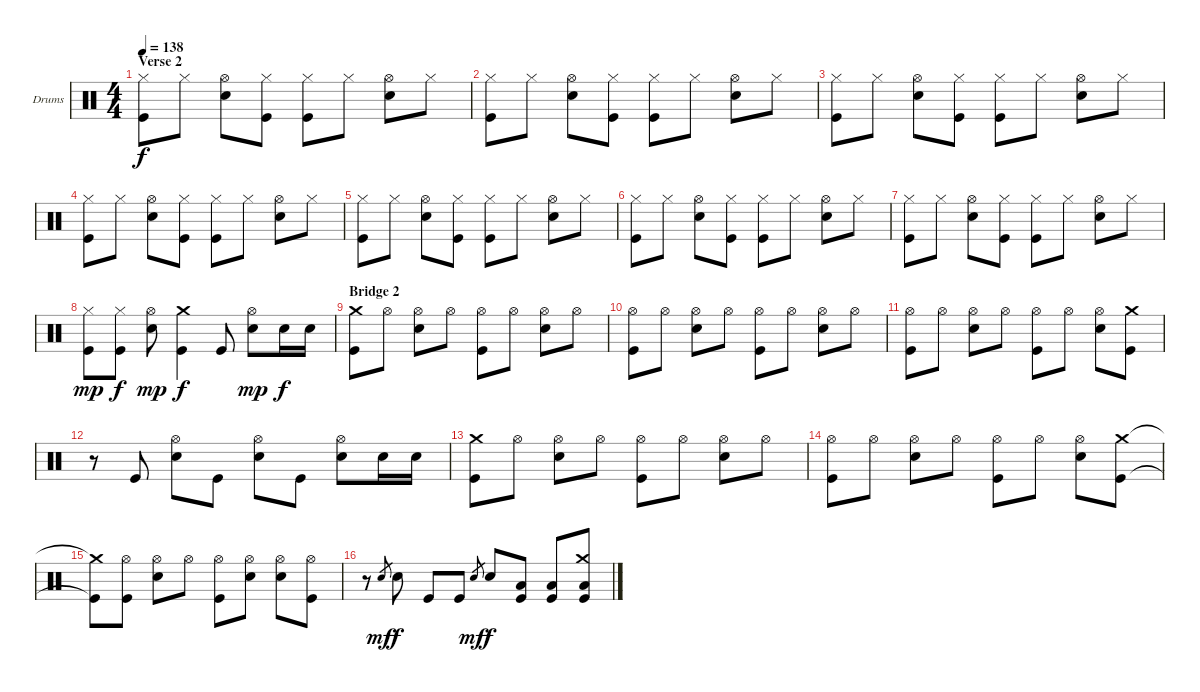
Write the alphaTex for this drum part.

\bracketExtendMode groupsimilarinstruments
\firstSystemTrackNameOrientation horizontal
\otherSystemsTrackNameOrientation horizontal
\track ("Drumkit" "Drums") {instrument percussion}
\staff {score}
\articulation defaults
\ts (4 4)
\section ("" "Verse 2")
\tempo 138
\clef neutral
\ks c
("Hi-Hat (closed)" "Kick (hit)").8{dy f} "Hi-Hat (closed)".8 ("Hi-Hat (open)" "Snare (hit) 2").8 ("Hi-Hat (closed)" "Kick (hit)").8 ("Hi-Hat (closed)" "Kick (hit)").8 "Hi-Hat (closed)".8 ("Hi-Hat (open)" "Snare (hit) 2").8 "Hi-Hat (closed)".8 |
("Hi-Hat (closed)" "Kick (hit)").8 "Hi-Hat (closed)".8 ("Hi-Hat (open)" "Snare (hit) 2").8 ("Hi-Hat (closed)" "Kick (hit)").8 ("Hi-Hat (closed)" "Kick (hit)").8 "Hi-Hat (closed)".8 ("Hi-Hat (open)" "Snare (hit) 2").8 "Hi-Hat (closed)".8 |
("Hi-Hat (closed)" "Kick (hit)").8 "Hi-Hat (closed)".8 ("Hi-Hat (open)" "Snare (hit) 2").8 ("Hi-Hat (closed)" "Kick (hit)").8 ("Hi-Hat (closed)" "Kick (hit)").8 "Hi-Hat (closed)".8 ("Hi-Hat (open)" "Snare (hit) 2").8 "Hi-Hat (closed)".8 |
("Hi-Hat (closed)" "Kick (hit)").8 "Hi-Hat (closed)".8 ("Hi-Hat (open)" "Snare (hit) 2").8 ("Hi-Hat (closed)" "Kick (hit)").8 ("Hi-Hat (closed)" "Kick (hit)").8 "Hi-Hat (closed)".8 ("Hi-Hat (open)" "Snare (hit) 2").8 "Hi-Hat (closed)".8 |
("Hi-Hat (closed)" "Kick (hit)").8 "Hi-Hat (closed)".8 ("Hi-Hat (open)" "Snare (hit) 2").8 ("Hi-Hat (closed)" "Kick (hit)").8 ("Hi-Hat (closed)" "Kick (hit)").8 "Hi-Hat (closed)".8 ("Hi-Hat (open)" "Snare (hit) 2").8 "Hi-Hat (closed)".8 |
("Hi-Hat (closed)" "Kick (hit)").8 "Hi-Hat (closed)".8 ("Hi-Hat (open)" "Snare (hit) 2").8 ("Hi-Hat (closed)" "Kick (hit)").8 ("Hi-Hat (closed)" "Kick (hit)").8 "Hi-Hat (closed)".8 ("Hi-Hat (open)" "Snare (hit) 2").8 "Hi-Hat (closed)".8 |
("Hi-Hat (closed)" "Kick (hit)").8 "Hi-Hat (closed)".8 ("Hi-Hat (open)" "Snare (hit) 2").8 ("Hi-Hat (closed)" "Kick (hit)").8 ("Hi-Hat (closed)" "Kick (hit)").8 "Hi-Hat (closed)".8 ("Hi-Hat (open)" "Snare (hit) 2").8 "Hi-Hat (closed)".8 |
("Hi-Hat (closed)" "Kick (hit)").8{dy mp} ("Hi-Hat (closed)" "Kick (hit)").8{dy f} ("Hi-Hat (open)" "Snare (hit) 2").8{dy mp} ("Crash medium (hit)" "Kick (hit)").4{dy f} "Kick (hit)".8 ("Hi-Hat (open)" "Snare (hit) 2").8{dy mp} "Snare (hit) 2".16{dy f} "Snare (hit) 2".16 |
\section ("" "Bridge 2")
("Crash medium (hit)" "Kick (hit)").8 "Hi-Hat (open)".8 ("Hi-Hat (open)" "Snare (hit) 2").8 "Hi-Hat (open)".8 ("Hi-Hat (open)" "Kick (hit)").8 "Hi-Hat (open)".8 ("Hi-Hat (open)" "Snare (hit) 2").8 "Hi-Hat (open)".8 |
("Hi-Hat (open)" "Kick (hit)").8 "Hi-Hat (open)".8 ("Hi-Hat (open)" "Snare (hit) 2").8 "Hi-Hat (open)".8 ("Hi-Hat (open)" "Kick (hit)").8 "Hi-Hat (open)".8 ("Hi-Hat (open)" "Snare (hit) 2").8 "Hi-Hat (open)".8 |
("Hi-Hat (open)" "Kick (hit)").8 "Hi-Hat (open)".8 ("Hi-Hat (open)" "Snare (hit) 2").8 "Hi-Hat (open)".8 ("Hi-Hat (open)" "Kick (hit)").8 "Hi-Hat (open)".8 ("Hi-Hat (open)" "Snare (hit) 2").8 ("Crash medium (hit)" "Kick (hit)").8 |
r.8 "Kick (hit)".8 ("Hi-Hat (open)" "Snare (hit) 2").8 "Kick (hit)".8 ("Hi-Hat (open)" "Snare (hit) 2").8 "Kick (hit)".8 ("Hi-Hat (open)" "Snare (hit) 2").8 "Snare (hit) 2".16 "Snare (hit) 2".16 |
("Crash medium (hit)" "Kick (hit)").8 "Hi-Hat (open)".8 ("Hi-Hat (open)" "Snare (hit) 2").8 "Hi-Hat (open)".8 ("Hi-Hat (open)" "Kick (hit)").8 "Hi-Hat (open)".8 ("Hi-Hat (open)" "Snare (hit) 2").8 "Hi-Hat (open)".8 |
("Hi-Hat (open)" "Kick (hit)").8 "Hi-Hat (open)".8 ("Hi-Hat (open)" "Snare (hit) 2").8 "Hi-Hat (open)".8 ("Hi-Hat (open)" "Kick (hit)").8 "Hi-Hat (open)".8 ("Hi-Hat (open)" "Snare (hit) 2").8 ("Crash medium (hit)" "Kick (hit)").8 |
("Crash medium (hit)"{t} "Kick (hit)"{t}).8 ("Hi-Hat (open)" "Kick (hit)").8 ("Hi-Hat (open)" "Snare (hit) 2").8 "Hi-Hat (open)".8 ("Hi-Hat (open)" "Kick (hit)").8 ("Hi-Hat (open)" "Snare (hit) 2").8 ("Hi-Hat (open)" "Snare (hit) 2").8 ("Hi-Hat (open)" "Kick (hit)").8 |
r.8 "Snare (hit) 2".8{gr dy mf} "Snare (hit) 2".8{dy f} "Kick (hit)".8 "Kick (hit)".8 "Snare (hit) 2".8{gr dy mf} "Snare (hit) 2".8{dy f} ("Low Tom (hit)" "Kick (hit)").8 ("Low Tom (hit)" "Kick (hit)").8 ("Crash medium (hit)" "Low Tom (hit)" "Kick (hit)").8
